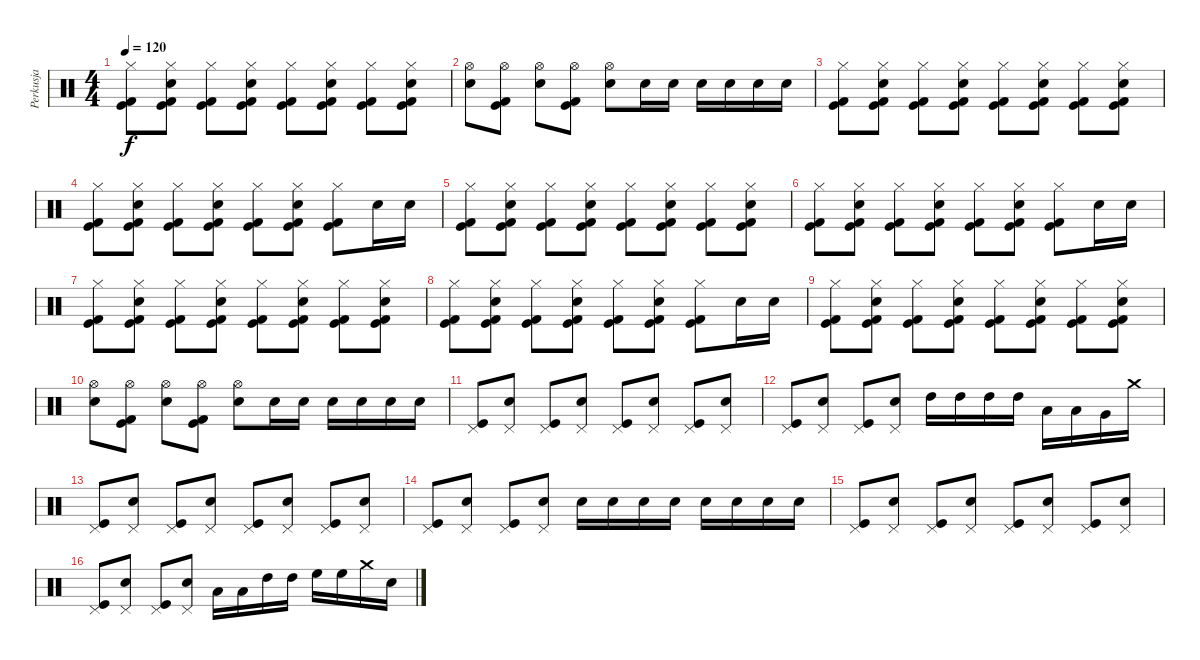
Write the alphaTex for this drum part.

\track ("Perkusja" "Perkusja") {instrument percussion}
\staff {score}
\articulation defaults
\ts (4 4)
\tempo 120
\clef neutral
\ks c
("Hi-Hat (closed)" "Kick (hit)" "Kick (hit) 2").8{dy f} ("Hi-Hat (closed)" "Snare (hit) 2" "Kick (hit)" "Kick (hit) 2").8 ("Hi-Hat (closed)" "Kick (hit)" "Kick (hit) 2").8 ("Hi-Hat (closed)" "Snare (hit) 2" "Kick (hit)" "Kick (hit) 2").8 ("Hi-Hat (closed)" "Kick (hit)" "Kick (hit) 2").8 ("Hi-Hat (closed)" "Snare (hit) 2" "Kick (hit)" "Kick (hit) 2").8 ("Hi-Hat (closed)" "Kick (hit)" "Kick (hit) 2").8 ("Hi-Hat (closed)" "Snare (hit) 2" "Kick (hit)" "Kick (hit) 2").8 |
("Hi-Hat (open)" "Electric Snare (hit)").8 ("Hi-Hat (open)" "Kick (hit)" "Kick (hit) 2").8 ("Hi-Hat (open)" "Electric Snare (hit)").8 ("Hi-Hat (open)" "Kick (hit)" "Kick (hit) 2").8 ("Hi-Hat (open)" "Electric Snare (hit)").8 "Snare (hit) 2".16 "Snare (hit) 2".16 "Snare (hit) 2".16 "Snare (hit) 2".16 "Snare (hit) 2".16 "Snare (hit) 2".16 |
("Hi-Hat (closed)" "Kick (hit)" "Kick (hit) 2").8 ("Hi-Hat (closed)" "Snare (hit) 2" "Kick (hit)" "Kick (hit) 2").8 ("Hi-Hat (closed)" "Kick (hit)" "Kick (hit) 2").8 ("Hi-Hat (closed)" "Snare (hit) 2" "Kick (hit)" "Kick (hit) 2").8 ("Hi-Hat (closed)" "Kick (hit)" "Kick (hit) 2").8 ("Hi-Hat (closed)" "Snare (hit) 2" "Kick (hit)" "Kick (hit) 2").8 ("Hi-Hat (closed)" "Kick (hit)" "Kick (hit) 2").8 ("Hi-Hat (closed)" "Snare (hit) 2" "Kick (hit)" "Kick (hit) 2").8 |
("Hi-Hat (closed)" "Kick (hit)" "Kick (hit) 2").8 ("Hi-Hat (closed)" "Snare (hit) 2" "Kick (hit)" "Kick (hit) 2").8 ("Hi-Hat (closed)" "Kick (hit)" "Kick (hit) 2").8 ("Hi-Hat (closed)" "Snare (hit) 2" "Kick (hit)" "Kick (hit) 2").8 ("Hi-Hat (closed)" "Kick (hit)" "Kick (hit) 2").8 ("Hi-Hat (closed)" "Snare (hit) 2" "Kick (hit)" "Kick (hit) 2").8 ("Hi-Hat (closed)" "Kick (hit)" "Kick (hit) 2").8 "Snare (hit) 2".16 "Snare (hit) 2".16 |
("Hi-Hat (closed)" "Kick (hit)" "Kick (hit) 2").8 ("Hi-Hat (closed)" "Snare (hit) 2" "Kick (hit)" "Kick (hit) 2").8 ("Hi-Hat (closed)" "Kick (hit)" "Kick (hit) 2").8 ("Hi-Hat (closed)" "Snare (hit) 2" "Kick (hit)" "Kick (hit) 2").8 ("Hi-Hat (closed)" "Kick (hit)" "Kick (hit) 2").8 ("Hi-Hat (closed)" "Snare (hit) 2" "Kick (hit)" "Kick (hit) 2").8 ("Hi-Hat (closed)" "Kick (hit)" "Kick (hit) 2").8 ("Hi-Hat (closed)" "Snare (hit) 2" "Kick (hit)" "Kick (hit) 2").8 |
("Hi-Hat (closed)" "Kick (hit)" "Kick (hit) 2").8 ("Hi-Hat (closed)" "Snare (hit) 2" "Kick (hit)" "Kick (hit) 2").8 ("Hi-Hat (closed)" "Kick (hit)" "Kick (hit) 2").8 ("Hi-Hat (closed)" "Snare (hit) 2" "Kick (hit)" "Kick (hit) 2").8 ("Hi-Hat (closed)" "Kick (hit)" "Kick (hit) 2").8 ("Hi-Hat (closed)" "Snare (hit) 2" "Kick (hit)" "Kick (hit) 2").8 ("Hi-Hat (closed)" "Kick (hit)" "Kick (hit) 2").8 "Snare (hit) 2".16 "Snare (hit) 2".16 |
("Hi-Hat (closed)" "Kick (hit)" "Kick (hit) 2").8 ("Hi-Hat (closed)" "Snare (hit) 2" "Kick (hit)" "Kick (hit) 2").8 ("Hi-Hat (closed)" "Kick (hit)" "Kick (hit) 2").8 ("Hi-Hat (closed)" "Snare (hit) 2" "Kick (hit)" "Kick (hit) 2").8 ("Hi-Hat (closed)" "Kick (hit)" "Kick (hit) 2").8 ("Hi-Hat (closed)" "Snare (hit) 2" "Kick (hit)" "Kick (hit) 2").8 ("Hi-Hat (closed)" "Kick (hit)" "Kick (hit) 2").8 ("Hi-Hat (closed)" "Snare (hit) 2" "Kick (hit)" "Kick (hit) 2").8 |
("Hi-Hat (closed)" "Kick (hit)" "Kick (hit) 2").8 ("Hi-Hat (closed)" "Snare (hit) 2" "Kick (hit)" "Kick (hit) 2").8 ("Hi-Hat (closed)" "Kick (hit)" "Kick (hit) 2").8 ("Hi-Hat (closed)" "Snare (hit) 2" "Kick (hit)" "Kick (hit) 2").8 ("Hi-Hat (closed)" "Kick (hit)" "Kick (hit) 2").8 ("Hi-Hat (closed)" "Snare (hit) 2" "Kick (hit)" "Kick (hit) 2").8 ("Hi-Hat (closed)" "Kick (hit)" "Kick (hit) 2").8 "Snare (hit) 2".16 "Snare (hit) 2".16 |
("Hi-Hat (closed)" "Kick (hit)" "Kick (hit) 2").8 ("Hi-Hat (closed)" "Snare (hit) 2" "Kick (hit)" "Kick (hit) 2").8 ("Hi-Hat (closed)" "Kick (hit)" "Kick (hit) 2").8 ("Hi-Hat (closed)" "Snare (hit) 2" "Kick (hit)" "Kick (hit) 2").8 ("Hi-Hat (closed)" "Kick (hit)" "Kick (hit) 2").8 ("Hi-Hat (closed)" "Snare (hit) 2" "Kick (hit)" "Kick (hit) 2").8 ("Hi-Hat (closed)" "Kick (hit)" "Kick (hit) 2").8 ("Hi-Hat (closed)" "Snare (hit) 2" "Kick (hit)" "Kick (hit) 2").8 |
("Hi-Hat (open)" "Electric Snare (hit)").8 ("Hi-Hat (open)" "Kick (hit)" "Kick (hit) 2").8 ("Hi-Hat (open)" "Electric Snare (hit)").8 ("Hi-Hat (open)" "Kick (hit)" "Kick (hit) 2").8 ("Hi-Hat (open)" "Electric Snare (hit)").8 "Snare (hit) 2".16 "Snare (hit) 2".16 "Snare (hit) 2".16 "Snare (hit) 2".16 "Snare (hit) 2".16 "Snare (hit) 2".16 |
("Pedal Hi-Hat (hit)" "Kick (hit)").8 ("Pedal Hi-Hat (hit)" "Snare (hit) 2").8 ("Pedal Hi-Hat (hit)" "Kick (hit)").8 ("Pedal Hi-Hat (hit)" "Snare (hit) 2").8 ("Pedal Hi-Hat (hit)" "Kick (hit)").8 ("Pedal Hi-Hat (hit)" "Snare (hit) 2").8 ("Pedal Hi-Hat (hit)" "Kick (hit)").8 ("Pedal Hi-Hat (hit)" "Snare (hit) 2").8 |
("Pedal Hi-Hat (hit)" "Kick (hit)").8 ("Pedal Hi-Hat (hit)" "Snare (hit) 2").8 ("Pedal Hi-Hat (hit)" "Kick (hit)").8 ("Pedal Hi-Hat (hit)" "Snare (hit) 2").8 "High Tom (hit)".16 "High Tom (hit)".16 "High Tom (hit)".16 "High Tom (hit)".16 "Low Tom (hit)".16 "Low Tom (hit)".16 "Very Low Tom (hit)".16 "Crash medium (hit)".16 |
("Pedal Hi-Hat (hit)" "Kick (hit)").8 ("Pedal Hi-Hat (hit)" "Snare (hit) 2").8 ("Pedal Hi-Hat (hit)" "Kick (hit)").8 ("Pedal Hi-Hat (hit)" "Snare (hit) 2").8 ("Pedal Hi-Hat (hit)" "Kick (hit)").8 ("Pedal Hi-Hat (hit)" "Snare (hit) 2").8 ("Pedal Hi-Hat (hit)" "Kick (hit)").8 ("Pedal Hi-Hat (hit)" "Snare (hit) 2").8 |
("Pedal Hi-Hat (hit)" "Kick (hit)").8 ("Pedal Hi-Hat (hit)" "Snare (hit) 2").8 ("Pedal Hi-Hat (hit)" "Kick (hit)").8 ("Pedal Hi-Hat (hit)" "Snare (hit) 2").8 "Snare (hit) 2".16 "Snare (hit) 2".16 "Snare (hit) 2".16 "Snare (hit) 2".16 "Snare (hit) 2".16 "Snare (hit) 2".16 "Snare (hit) 2".16 "Snare (hit) 2".16 |
("Pedal Hi-Hat (hit)" "Kick (hit)").8 ("Pedal Hi-Hat (hit)" "Snare (hit) 2").8 ("Pedal Hi-Hat (hit)" "Kick (hit)").8 ("Pedal Hi-Hat (hit)" "Snare (hit) 2").8 ("Pedal Hi-Hat (hit)" "Kick (hit)").8 ("Pedal Hi-Hat (hit)" "Snare (hit) 2").8 ("Pedal Hi-Hat (hit)" "Kick (hit)").8 ("Pedal Hi-Hat (hit)" "Snare (hit) 2").8 |
("Pedal Hi-Hat (hit)" "Kick (hit)").8 ("Pedal Hi-Hat (hit)" "Snare (hit) 2").8 ("Pedal Hi-Hat (hit)" "Kick (hit)").8 ("Pedal Hi-Hat (hit)" "Snare (hit) 2").8 "Low Tom (hit)".16 "Low Tom (hit)".16 "High Tom (hit)".16 "High Tom (hit)".16 "High Floor Tom (hit)".16 "High Floor Tom (hit)".16 "Crash medium (hit)".16 "Snare (hit)"{x}.16
